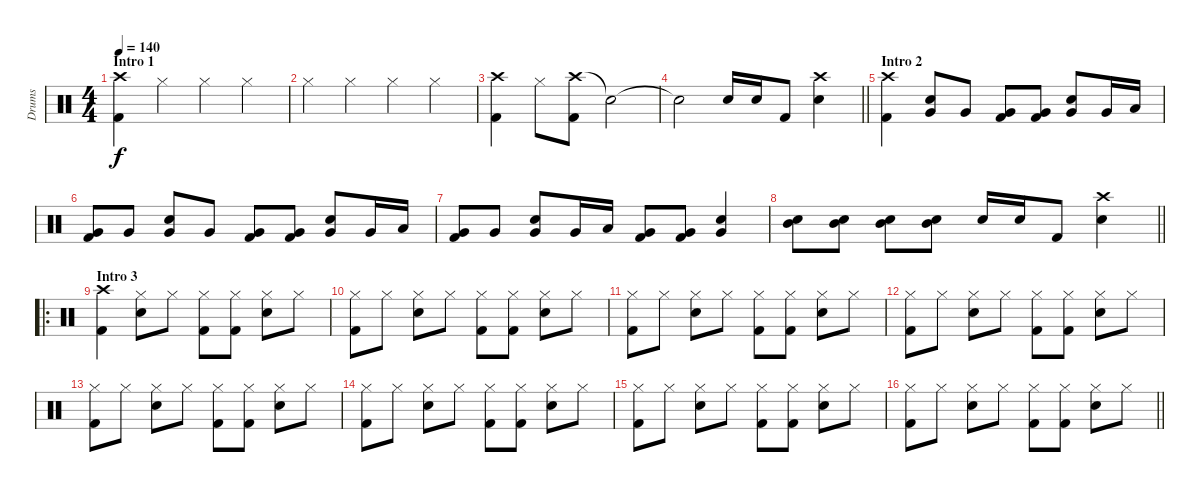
\track ("Drums" "Drums") {instrument percussion}
\staff {score}
\articulation defaults
\ts (4 4)
\section ("" "Intro 1")
\tempo 140
\clef neutral
\ks c
("Crash high (hit)" "Kick (hit) 2").4{dy f} "Hi-Hat (closed)".4 "Hi-Hat (closed)".4 "Hi-Hat (closed)".4 |
"Hi-Hat (closed)".4 "Hi-Hat (closed)".4 "Hi-Hat (closed)".4 "Hi-Hat (closed)".4 |
("Crash high (hit)" "Kick (hit) 2").4 "Hi-Hat (closed)".8 ("Crash high (hit)" "Kick (hit) 2").8 "Snare (hit)"{t}.2 |
\barLineRight lightlight "Snare (hit)"{t}.2 "Snare (hit) 2".16 "Snare (hit) 2".16 "Kick (hit) 2".8
("Crash high (hit)" "Snare (hit) 2").4 |
\section ("" "Intro 2")
("Crash high (hit)" "Kick (hit) 2").4 ("Snare (hit) 2" "Very Low Tom (hit)").8 "Very Low Tom (hit)".8 ("Very Low Tom (hit)" "Kick (hit) 2").8 ("Very Low Tom (hit)" "Kick (hit) 2").8 ("Snare (hit) 2" "Very Low Tom (hit)").8 "Very Low Tom (hit)".16 "Low Tom (hit)".16 |
("Very Low Tom (hit)" "Kick (hit) 2").8 "Very Low Tom (hit)".8 ("Snare (hit) 2" "Very Low Tom (hit)").8 "Very Low Tom (hit)".8 ("Very Low Tom (hit)" "Kick (hit) 2").8 ("Very Low Tom (hit)" "Kick (hit) 2").8 ("Snare (hit) 2" "Very Low Tom (hit)").8 "Very Low Tom (hit)".16 "Low Tom (hit)".16 |
("Very Low Tom (hit)" "Kick (hit) 2").8 "Very Low Tom (hit)".8 ("Snare (hit) 2" "Very Low Tom (hit)").8 "Very Low Tom (hit)".16 "Low Tom (hit)".16 ("Very Low Tom (hit)" "Kick (hit) 2").8 ("Very Low Tom (hit)" "Kick (hit) 2").8 ("Snare (hit) 2" "Very Low Tom (hit)").4 |
\barLineRight lightlight
("Mid Tom (hit)" "Snare (hit) 2").8 ("Mid Tom (hit)" "Snare (hit) 2").8 ("Mid Tom (hit)" "Snare (hit) 2").8 ("Mid Tom (hit)" "Snare (hit) 2").8 "Snare (hit) 2".16 "Snare (hit) 2".16 "Kick (hit) 2".8 ("Crash high (hit)" "Snare (hit) 2").4 |
\ro
\section ("" "Intro 3")
("Crash high (hit)" "Kick (hit) 2").4 ("Hi-Hat (closed)" "Snare (hit) 2").8 "Hi-Hat (closed)".8 ("Hi-Hat (closed)" "Kick (hit) 2").8 ("Hi-Hat (closed)" "Kick (hit) 2").8 ("Hi-Hat (closed)" "Snare (hit) 2").8 "Hi-Hat (closed)".8 |
("Hi-Hat (closed)" "Kick (hit) 2").8 "Hi-Hat (closed)".8 ("Hi-Hat (closed)" "Snare (hit) 2").8 "Hi-Hat (closed)".8 ("Hi-Hat (closed)" "Kick (hit) 2").8 ("Hi-Hat (closed)" "Kick (hit) 2").8 ("Hi-Hat (closed)" "Snare (hit) 2").8 "Hi-Hat (closed)".8 |
("Hi-Hat (closed)" "Kick (hit) 2").8 "Hi-Hat (closed)".8 ("Hi-Hat (closed)" "Snare (hit) 2").8 "Hi-Hat (closed)".8 ("Hi-Hat (closed)" "Kick (hit) 2").8 ("Hi-Hat (closed)" "Kick (hit) 2").8 ("Hi-Hat (closed)" "Snare (hit) 2").8 "Hi-Hat (closed)".8 |
("Hi-Hat (closed)" "Kick (hit) 2").8 "Hi-Hat (closed)".8 ("Hi-Hat (closed)" "Snare (hit) 2").8 "Hi-Hat (closed)".8 ("Hi-Hat (closed)" "Kick (hit) 2").8 ("Hi-Hat (closed)" "Kick (hit) 2").8 ("Hi-Hat (closed)" "Snare (hit) 2").8 "Hi-Hat (closed)".8 |
("Hi-Hat (closed)" "Kick (hit) 2").8 "Hi-Hat (closed)".8 ("Hi-Hat (closed)" "Snare (hit) 2").8 "Hi-Hat (closed)".8 ("Hi-Hat (closed)" "Kick (hit) 2").8 ("Hi-Hat (closed)" "Kick (hit) 2").8 ("Hi-Hat (closed)" "Snare (hit) 2").8 "Hi-Hat (closed)".8 |
("Hi-Hat (closed)" "Kick (hit) 2").8 "Hi-Hat (closed)".8 ("Hi-Hat (closed)" "Snare (hit) 2").8 "Hi-Hat (closed)".8 ("Hi-Hat (closed)" "Kick (hit) 2").8 ("Hi-Hat (closed)" "Kick (hit) 2").8 ("Hi-Hat (closed)" "Snare (hit) 2").8 "Hi-Hat (closed)".8 |
("Hi-Hat (closed)" "Kick (hit) 2").8 "Hi-Hat (closed)".8 ("Hi-Hat (closed)" "Snare (hit) 2").8 "Hi-Hat (closed)".8 ("Hi-Hat (closed)" "Kick (hit) 2").8 ("Hi-Hat (closed)" "Kick (hit) 2").8 ("Hi-Hat (closed)" "Snare (hit) 2").8 "Hi-Hat (closed)".8 |
\barLineRight lightlight
("Hi-Hat (closed)" "Kick (hit) 2").8 "Hi-Hat (closed)".8 ("Hi-Hat (closed)" "Snare (hit) 2").8 "Hi-Hat (closed)".8 ("Hi-Hat (closed)" "Kick (hit) 2").8 ("Hi-Hat (closed)" "Kick (hit) 2").8 ("Hi-Hat (closed)" "Snare (hit) 2").8 "Hi-Hat (closed)".8
